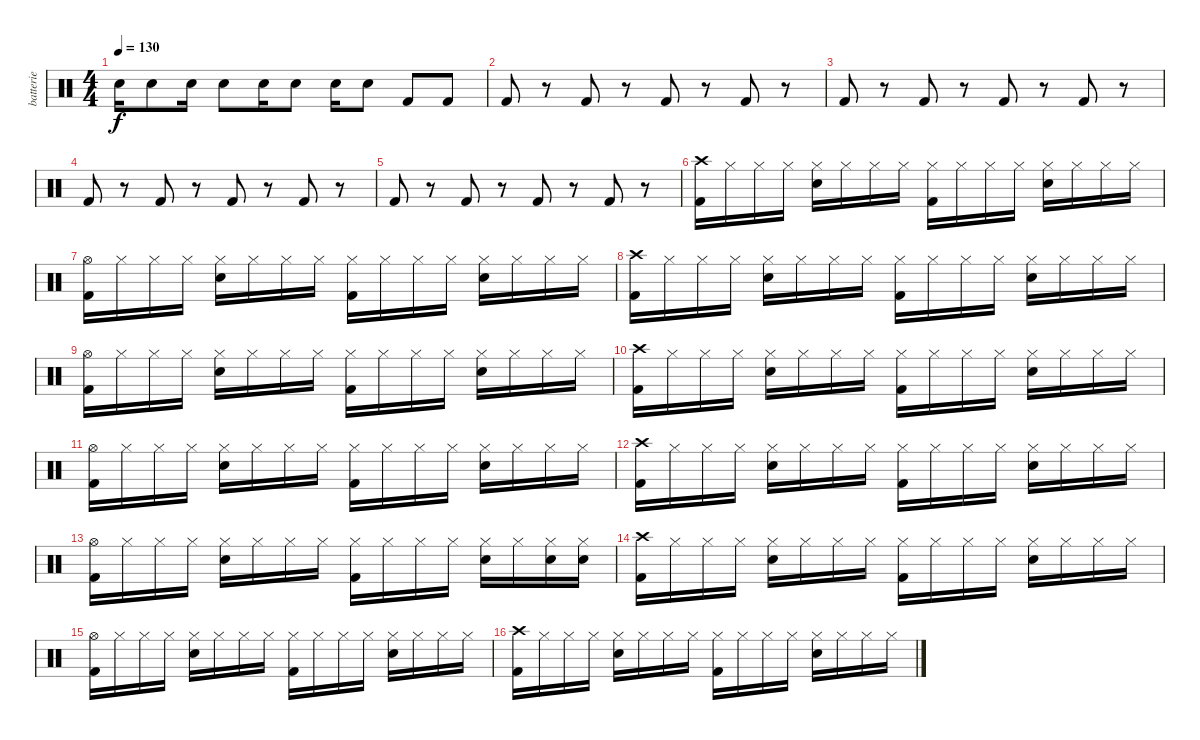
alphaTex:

\track ("batterie" "batterie") {instrument percussion}
\staff {score}
\articulation defaults
\ts (4 4)
\tempo 130
\clef neutral
\ks c "Electric Snare (hit)".16{dy f} "Electric Snare (hit)".8 "Electric Snare (hit)".16 "Electric Snare (hit)".8 "Electric Snare (hit)".16 "Electric Snare (hit)".8 "Electric Snare (hit)".16 "Electric Snare (hit)".8 "Kick (hit) 2".8 "Kick (hit) 2".8
|
"Kick (hit) 2".8 r.8 "Kick (hit) 2".8 r.8 "Kick (hit) 2".8 r.8 "Kick (hit) 2".8 r.8 |
"Kick (hit) 2".8 r.8 "Kick (hit) 2".8 r.8 "Kick (hit) 2".8 r.8 "Kick (hit) 2".8 r.8 |
"Kick (hit) 2".8 r.8 "Kick (hit) 2".8 r.8 "Kick (hit) 2".8 r.8 "Kick (hit) 2".8 r.8 |
"Kick (hit) 2".8 r.8 "Kick (hit) 2".8 r.8 "Kick (hit) 2".8 r.8 "Kick (hit) 2".8 r.8 |
("Crash high (hit)" "Kick (hit) 2").16 "Hi-Hat (closed)".16 "Hi-Hat (closed)".16 "Hi-Hat (closed)".16 ("Hi-Hat (closed)" "Electric Snare (hit)").16 "Hi-Hat (closed)".16 "Hi-Hat (closed)".16 "Hi-Hat (closed)".16 ("Hi-Hat (closed)" "Kick (hit) 2").16 "Hi-Hat (closed)".16 "Hi-Hat (closed)".16 "Hi-Hat (closed)".16 ("Hi-Hat (closed)" "Electric Snare (hit)").16 "Hi-Hat (closed)".16 "Hi-Hat (closed)".16 "Hi-Hat (closed)".16 |
("Hi-Hat (open)" "Kick (hit) 2").16 "Hi-Hat (closed)".16 "Hi-Hat (closed)".16 "Hi-Hat (closed)".16 ("Hi-Hat (closed)" "Electric Snare (hit)").16 "Hi-Hat (closed)".16 "Hi-Hat (closed)".16 "Hi-Hat (closed)".16 ("Hi-Hat (closed)" "Kick (hit) 2").16 "Hi-Hat (closed)".16 "Hi-Hat (closed)".16 "Hi-Hat (closed)".16 ("Hi-Hat (closed)" "Electric Snare (hit)").16 "Hi-Hat (closed)".16 "Hi-Hat (closed)".16 "Hi-Hat (closed)".16 |
("Crash high (hit)" "Kick (hit) 2").16 "Hi-Hat (closed)".16 "Hi-Hat (closed)".16 "Hi-Hat (closed)".16 ("Hi-Hat (closed)" "Electric Snare (hit)").16 "Hi-Hat (closed)".16 "Hi-Hat (closed)".16 "Hi-Hat (closed)".16 ("Hi-Hat (closed)" "Kick (hit) 2").16 "Hi-Hat (closed)".16 "Hi-Hat (closed)".16 "Hi-Hat (closed)".16 ("Hi-Hat (closed)" "Electric Snare (hit)").16 "Hi-Hat (closed)".16 "Hi-Hat (closed)".16 "Hi-Hat (closed)".16 |
("Hi-Hat (open)" "Kick (hit) 2").16 "Hi-Hat (closed)".16 "Hi-Hat (closed)".16 "Hi-Hat (closed)".16 ("Hi-Hat (closed)" "Electric Snare (hit)").16 "Hi-Hat (closed)".16 "Hi-Hat (closed)".16 "Hi-Hat (closed)".16 ("Hi-Hat (closed)" "Kick (hit) 2").16 "Hi-Hat (closed)".16 "Hi-Hat (closed)".16 "Hi-Hat (closed)".16 ("Hi-Hat (closed)" "Electric Snare (hit)").16 "Hi-Hat (closed)".16 "Hi-Hat (closed)".16 "Hi-Hat (closed)".16 |
("Crash high (hit)" "Kick (hit) 2").16 "Hi-Hat (closed)".16 "Hi-Hat (closed)".16 "Hi-Hat (closed)".16 ("Hi-Hat (closed)" "Electric Snare (hit)").16 "Hi-Hat (closed)".16 "Hi-Hat (closed)".16 "Hi-Hat (closed)".16 ("Hi-Hat (closed)" "Kick (hit) 2").16 "Hi-Hat (closed)".16 "Hi-Hat (closed)".16 "Hi-Hat (closed)".16 ("Hi-Hat (closed)" "Electric Snare (hit)").16 "Hi-Hat (closed)".16 "Hi-Hat (closed)".16 "Hi-Hat (closed)".16 |
("Hi-Hat (open)" "Kick (hit) 2").16 "Hi-Hat (closed)".16 "Hi-Hat (closed)".16 "Hi-Hat (closed)".16 ("Hi-Hat (closed)" "Electric Snare (hit)").16 "Hi-Hat (closed)".16 "Hi-Hat (closed)".16 "Hi-Hat (closed)".16 ("Hi-Hat (closed)" "Kick (hit) 2").16 "Hi-Hat (closed)".16 "Hi-Hat (closed)".16 "Hi-Hat (closed)".16 ("Hi-Hat (closed)" "Electric Snare (hit)").16 "Hi-Hat (closed)".16 "Hi-Hat (closed)".16 "Hi-Hat (closed)".16 |
("Crash high (hit)" "Kick (hit) 2").16 "Hi-Hat (closed)".16 "Hi-Hat (closed)".16 "Hi-Hat (closed)".16 ("Hi-Hat (closed)" "Electric Snare (hit)").16 "Hi-Hat (closed)".16 "Hi-Hat (closed)".16 "Hi-Hat (closed)".16 ("Hi-Hat (closed)" "Kick (hit) 2").16 "Hi-Hat (closed)".16 "Hi-Hat (closed)".16 "Hi-Hat (closed)".16 ("Hi-Hat (closed)" "Electric Snare (hit)").16 "Hi-Hat (closed)".16 "Hi-Hat (closed)".16 "Hi-Hat (closed)".16 |
("Hi-Hat (open)" "Kick (hit) 2").16 "Hi-Hat (closed)".16 "Hi-Hat (closed)".16 "Hi-Hat (closed)".16 ("Hi-Hat (closed)" "Electric Snare (hit)").16 "Hi-Hat (closed)".16 "Hi-Hat (closed)".16 "Hi-Hat (closed)".16 ("Hi-Hat (closed)" "Kick (hit) 2").16 "Hi-Hat (closed)".16 "Hi-Hat (closed)".16 "Hi-Hat (closed)".16 ("Hi-Hat (closed)" "Electric Snare (hit)").16 "Hi-Hat (closed)".16 ("Hi-Hat (closed)" "Electric Snare (hit)").16 ("Hi-Hat (closed)" "Electric Snare (hit)").16 |
("Crash high (hit)" "Kick (hit) 2").16 "Hi-Hat (closed)".16 "Hi-Hat (closed)".16 "Hi-Hat (closed)".16 ("Hi-Hat (closed)" "Electric Snare (hit)").16 "Hi-Hat (closed)".16 "Hi-Hat (closed)".16 "Hi-Hat (closed)".16 ("Hi-Hat (closed)" "Kick (hit) 2").16 "Hi-Hat (closed)".16 "Hi-Hat (closed)".16 "Hi-Hat (closed)".16 ("Hi-Hat (closed)" "Electric Snare (hit)").16 "Hi-Hat (closed)".16 "Hi-Hat (closed)".16 "Hi-Hat (closed)".16 |
("Hi-Hat (open)" "Kick (hit) 2").16 "Hi-Hat (closed)".16 "Hi-Hat (closed)".16 "Hi-Hat (closed)".16 ("Hi-Hat (closed)" "Electric Snare (hit)").16 "Hi-Hat (closed)".16 "Hi-Hat (closed)".16 "Hi-Hat (closed)".16 ("Hi-Hat (closed)" "Kick (hit) 2").16 "Hi-Hat (closed)".16 "Hi-Hat (closed)".16 "Hi-Hat (closed)".16 ("Hi-Hat (closed)" "Electric Snare (hit)").16 "Hi-Hat (closed)".16 "Hi-Hat (closed)".16 "Hi-Hat (closed)".16 |
("Crash high (hit)" "Kick (hit) 2").16 "Hi-Hat (closed)".16 "Hi-Hat (closed)".16 "Hi-Hat (closed)".16 ("Hi-Hat (closed)" "Electric Snare (hit)").16 "Hi-Hat (closed)".16 "Hi-Hat (closed)".16 "Hi-Hat (closed)".16 ("Hi-Hat (closed)" "Kick (hit) 2").16 "Hi-Hat (closed)".16 "Hi-Hat (closed)".16 "Hi-Hat (closed)".16 ("Hi-Hat (closed)" "Electric Snare (hit)").16 "Hi-Hat (closed)".16 "Hi-Hat (closed)".16 "Hi-Hat (closed)".16
